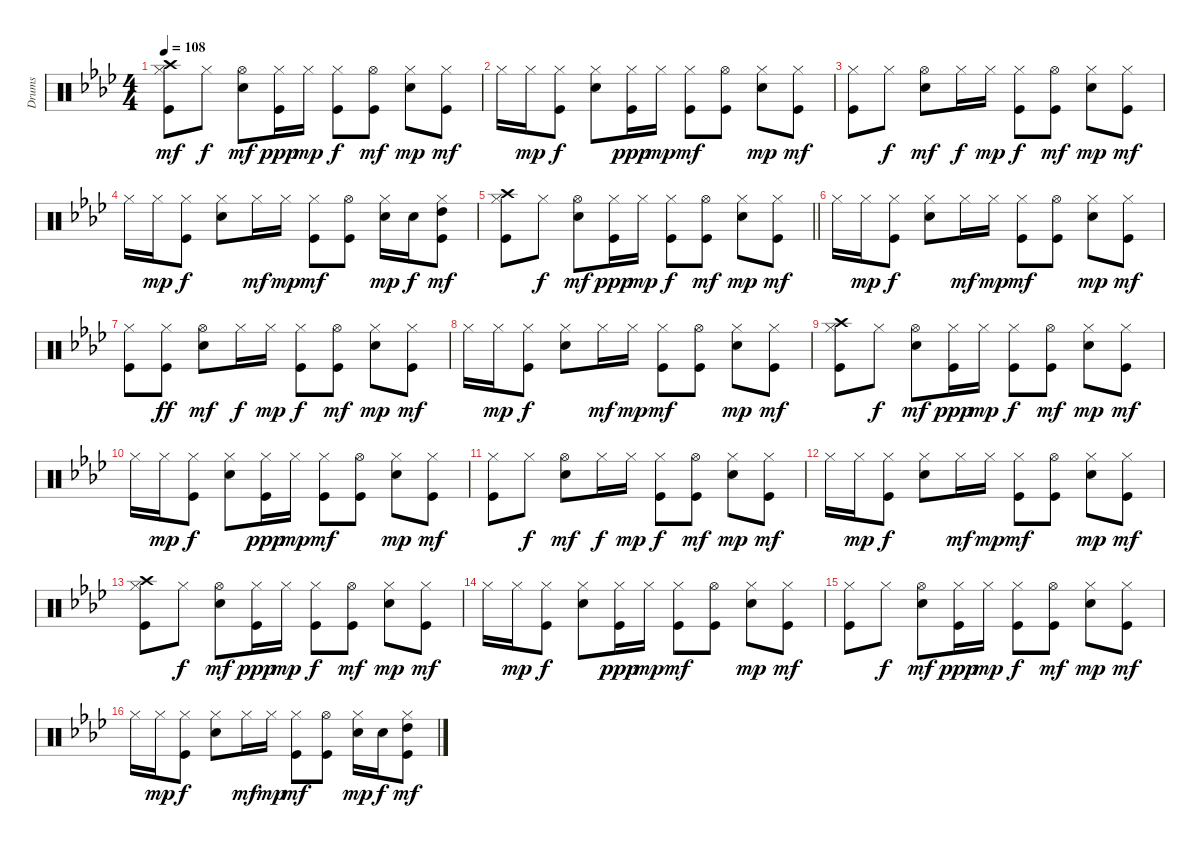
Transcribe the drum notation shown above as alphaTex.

\track ("Drums" "Drums") {instrument percussion}
\staff {score}
\articulation defaults
\ts (4 4)
\tempo 108
\clef neutral
\ks ab
("Kick (hit)" "Hi-Hat (closed)" "Crash high (hit)").8{dy mf} "Hi-Hat (closed)".8{dy f} ("Electric Snare (hit)" "Hi-Hat (open)").8{dy mf} ("Hi-Hat (closed)" "Kick (hit)").16{dy ppp} "Hi-Hat (closed)".16{dy mp} ("Kick (hit)" "Hi-Hat (closed)").8{dy f} ("Kick (hit)" "Hi-Hat (open)").8{dy mf} ("Electric Snare (hit)" "Hi-Hat (closed)").8{dy mp} ("Kick (hit)" "Hi-Hat (closed)").8{dy mf} |
"Hi-Hat (closed)".16 "Hi-Hat (closed)".16{dy mp} ("Kick (hit)" "Hi-Hat (closed)").8{dy f} ("Electric Snare (hit)" "Hi-Hat (closed)").8 ("Hi-Hat (closed)" "Kick (hit)").16{dy ppp} "Hi-Hat (closed)".16{dy mp} ("Kick (hit)" "Hi-Hat (closed)").8{dy mf} ("Kick (hit)" "Hi-Hat (open)").8 ("Electric Snare (hit)" "Hi-Hat (closed)").8{dy mp} ("Kick (hit)" "Hi-Hat (closed)").8{dy mf} |
("Kick (hit)" "Hi-Hat (closed)").8 "Hi-Hat (closed)".8{dy f} ("Electric Snare (hit)" "Hi-Hat (open)").8{dy mf} "Hi-Hat (closed)".16{dy f} "Hi-Hat (closed)".16{dy mp} ("Kick (hit)" "Hi-Hat (closed)").8{dy f} ("Kick (hit)" "Hi-Hat (open)").8{dy mf} ("Electric Snare (hit)" "Hi-Hat (closed)").8{dy mp} ("Kick (hit)" "Hi-Hat (closed)").8{dy mf} |
"Hi-Hat (closed)".16 "Hi-Hat (closed)".16{dy mp} ("Kick (hit)" "Hi-Hat (closed)").8{dy f} ("Electric Snare (hit)" "Hi-Hat (closed)").8 "Hi-Hat (closed)".16{dy mf} "Hi-Hat (closed)".16{dy mp} ("Kick (hit)" "Hi-Hat (closed)").8{dy mf} ("Kick (hit)" "Hi-Hat (open)").8 ("Electric Snare (hit)" "Hi-Hat (closed)").16{dy mp} "Electric Snare (hit)".16{dy f} ("Kick (hit)" "Hi-Hat (closed)" "High Tom (hit)").8{dy mf} |
\barLineRight lightlight
("Kick (hit)" "Hi-Hat (closed)" "Crash high (hit)").8 "Hi-Hat (closed)".8{dy f} ("Electric Snare (hit)" "Hi-Hat (open)").8{dy mf} ("Hi-Hat (closed)" "Kick (hit)").16{dy ppp} "Hi-Hat (closed)".16{dy mp} ("Kick (hit)" "Hi-Hat (closed)").8{dy f} ("Kick (hit)" "Hi-Hat (open)").8{dy mf} ("Electric Snare (hit)" "Hi-Hat (closed)").8{dy mp} ("Kick (hit)" "Hi-Hat (closed)").8{dy mf} |
"Hi-Hat (closed)".16 "Hi-Hat (closed)".16{dy mp} ("Kick (hit)" "Hi-Hat (closed)").8{dy f} ("Electric Snare (hit)" "Hi-Hat (closed)").8 "Hi-Hat (closed)".16{dy mf} "Hi-Hat (closed)".16{dy mp} ("Kick (hit)" "Hi-Hat (closed)").8{dy mf} ("Kick (hit)" "Hi-Hat (open)").8 ("Electric Snare (hit)" "Hi-Hat (closed)").8{dy mp} ("Kick (hit)" "Hi-Hat (closed)").8{dy mf} |
("Kick (hit)" "Hi-Hat (closed)").8 ("Kick (hit)" "Hi-Hat (closed)").8{dy ff} ("Electric Snare (hit)" "Hi-Hat (open)").8{dy mf} "Hi-Hat (closed)".16{dy f} "Hi-Hat (closed)".16{dy mp} ("Kick (hit)" "Hi-Hat (closed)").8{dy f} ("Kick (hit)" "Hi-Hat (open)").8{dy mf} ("Electric Snare (hit)" "Hi-Hat (closed)").8{dy mp} ("Kick (hit)" "Hi-Hat (closed)").8{dy mf} |
"Hi-Hat (closed)".16 "Hi-Hat (closed)".16{dy mp} ("Kick (hit)" "Hi-Hat (closed)").8{dy f} ("Electric Snare (hit)" "Hi-Hat (closed)").8 "Hi-Hat (closed)".16{dy mf} "Hi-Hat (closed)".16{dy mp} ("Kick (hit)" "Hi-Hat (closed)").8{dy mf} ("Kick (hit)" "Hi-Hat (open)").8 ("Electric Snare (hit)" "Hi-Hat (closed)").8{dy mp} ("Kick (hit)" "Hi-Hat (closed)").8{dy mf} |
("Kick (hit)" "Hi-Hat (closed)" "Crash high (hit)").8 "Hi-Hat (closed)".8{dy f} ("Electric Snare (hit)" "Hi-Hat (open)").8{dy mf} ("Hi-Hat (closed)" "Kick (hit)").16{dy ppp} "Hi-Hat (closed)".16{dy mp} ("Kick (hit)" "Hi-Hat (closed)").8{dy f} ("Kick (hit)" "Hi-Hat (open)").8{dy mf} ("Electric Snare (hit)" "Hi-Hat (closed)").8{dy mp} ("Kick (hit)" "Hi-Hat (closed)").8{dy mf} |
"Hi-Hat (closed)".16 "Hi-Hat (closed)".16{dy mp} ("Kick (hit)" "Hi-Hat (closed)").8{dy f} ("Electric Snare (hit)" "Hi-Hat (closed)").8 ("Hi-Hat (closed)" "Kick (hit)").16{dy ppp} "Hi-Hat (closed)".16{dy mp} ("Kick (hit)" "Hi-Hat (closed)").8{dy mf} ("Kick (hit)" "Hi-Hat (open)").8 ("Electric Snare (hit)" "Hi-Hat (closed)").8{dy mp} ("Kick (hit)" "Hi-Hat (closed)").8{dy mf} |
("Kick (hit)" "Hi-Hat (closed)").8 "Hi-Hat (closed)".8{dy f} ("Electric Snare (hit)" "Hi-Hat (open)").8{dy mf} "Hi-Hat (closed)".16{dy f} "Hi-Hat (closed)".16{dy mp} ("Kick (hit)" "Hi-Hat (closed)").8{dy f} ("Kick (hit)" "Hi-Hat (open)").8{dy mf} ("Electric Snare (hit)" "Hi-Hat (closed)").8{dy mp} ("Kick (hit)" "Hi-Hat (closed)").8{dy mf} |
"Hi-Hat (closed)".16 "Hi-Hat (closed)".16{dy mp} ("Kick (hit)" "Hi-Hat (closed)").8{dy f} ("Electric Snare (hit)" "Hi-Hat (closed)").8 "Hi-Hat (closed)".16{dy mf} "Hi-Hat (closed)".16{dy mp} ("Kick (hit)" "Hi-Hat (closed)").8{dy mf} ("Kick (hit)" "Hi-Hat (open)").8 ("Electric Snare (hit)" "Hi-Hat (closed)").8{dy mp} ("Kick (hit)" "Hi-Hat (closed)").8{dy mf} |
("Kick (hit)" "Hi-Hat (closed)" "Crash high (hit)").8 "Hi-Hat (closed)".8{dy f} ("Electric Snare (hit)" "Hi-Hat (open)").8{dy mf} ("Hi-Hat (closed)" "Kick (hit)").16{dy ppp} "Hi-Hat (closed)".16{dy mp} ("Kick (hit)" "Hi-Hat (closed)").8{dy f} ("Kick (hit)" "Hi-Hat (open)").8{dy mf} ("Electric Snare (hit)" "Hi-Hat (closed)").8{dy mp} ("Kick (hit)" "Hi-Hat (closed)").8{dy mf} |
"Hi-Hat (closed)".16 "Hi-Hat (closed)".16{dy mp} ("Kick (hit)" "Hi-Hat (closed)").8{dy f} ("Electric Snare (hit)" "Hi-Hat (closed)").8 ("Hi-Hat (closed)" "Kick (hit)").16{dy ppp} "Hi-Hat (closed)".16{dy mp} ("Kick (hit)" "Hi-Hat (closed)").8{dy mf} ("Kick (hit)" "Hi-Hat (open)").8 ("Electric Snare (hit)" "Hi-Hat (closed)").8{dy mp} ("Kick (hit)" "Hi-Hat (closed)").8{dy mf} |
("Kick (hit)" "Hi-Hat (closed)").8 "Hi-Hat (closed)".8{dy f} ("Electric Snare (hit)" "Hi-Hat (open)").8{dy mf} ("Hi-Hat (closed)" "Kick (hit)").16{dy ppp} "Hi-Hat (closed)".16{dy mp} ("Kick (hit)" "Hi-Hat (closed)").8{dy f} ("Kick (hit)" "Hi-Hat (open)").8{dy mf} ("Electric Snare (hit)" "Hi-Hat (closed)").8{dy mp} ("Kick (hit)" "Hi-Hat (closed)").8{dy mf} |
"Hi-Hat (closed)".16 "Hi-Hat (closed)".16{dy mp} ("Kick (hit)" "Hi-Hat (closed)").8{dy f} ("Electric Snare (hit)" "Hi-Hat (closed)").8 "Hi-Hat (closed)".16{dy mf} "Hi-Hat (closed)".16{dy mp} ("Kick (hit)" "Hi-Hat (closed)").8{dy mf} ("Kick (hit)" "Hi-Hat (open)").8 ("Electric Snare (hit)" "Hi-Hat (closed)").16{dy mp} "Electric Snare (hit)".16{dy f} ("Kick (hit)" "Hi-Hat (closed)" "High Tom (hit)").8{dy mf}
